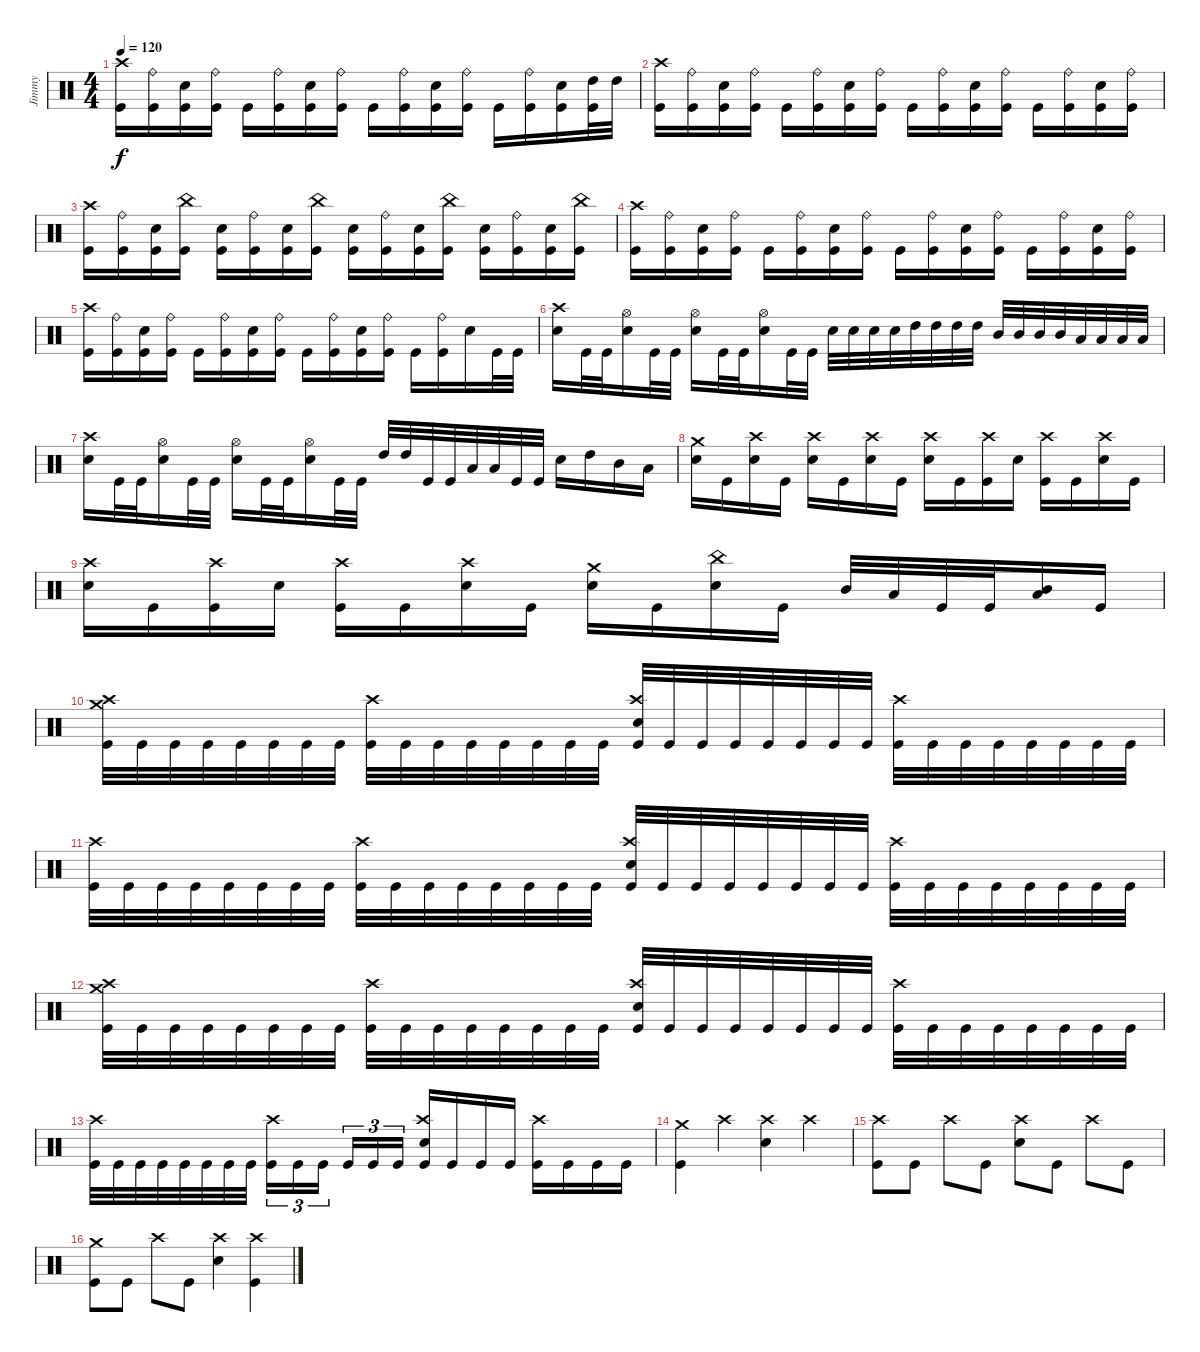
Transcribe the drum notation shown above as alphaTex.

\track ("Jimmy" "Jimmy") {instrument percussion}
\staff {score}
\articulation defaults
\ts (4 4)
\tempo 120
\clef neutral
\ks c
("Kick (hit)" "Crash high (hit)").16{dy f} ("Kick (hit)" "Ride (bell)").16 ("Kick (hit)" "Snare (hit) 2").16 ("Kick (hit)" "Ride (bell)").16 "Kick (hit)".16 ("Kick (hit)" "Ride (bell)").16 ("Kick (hit)" "Snare (hit) 2").16 ("Kick (hit)" "Ride (bell)").16 "Kick (hit)".16 ("Kick (hit)" "Ride (bell)").16 ("Kick (hit)" "Snare (hit) 2").16 ("Kick (hit)" "Ride (bell)").16 "Kick (hit)".16 ("Kick (hit)" "Ride (bell)").16 ("Kick (hit)" "Snare (hit) 2").16 ("Kick (hit)" "High Tom (hit)").32 "High Tom (hit)".32 |
("Kick (hit)" "Crash high (hit)").16 ("Kick (hit)" "Ride (bell)").16 ("Kick (hit)" "Snare (hit) 2").16 ("Kick (hit)" "Ride (bell)").16 "Kick (hit)".16 ("Kick (hit)" "Ride (bell)").16 ("Kick (hit)" "Snare (hit) 2").16 ("Kick (hit)" "Ride (bell)").16 "Kick (hit)".16 ("Kick (hit)" "Ride (bell)").16 ("Kick (hit)" "Snare (hit) 2").16 ("Kick (hit)" "Ride (bell)").16 "Kick (hit)".16 ("Kick (hit)" "Ride (bell)").16 ("Kick (hit)" "Snare (hit) 2").16 ("Kick (hit)" "Ride (bell)").16 |
("Kick (hit)" "Crash high (hit)").16 ("Kick (hit)" "Ride (bell)").16 ("Kick (hit)" "Snare (hit) 2").16 ("Kick (hit)" "China (hit)").16 ("Kick (hit)" "Snare (hit) 2").16 ("Kick (hit)" "Ride (bell)").16 ("Kick (hit)" "Snare (hit) 2").16 ("Kick (hit)" "China (hit)").16 ("Kick (hit)" "Snare (hit) 2").16 ("Kick (hit)" "Ride (bell)").16 ("Kick (hit)" "Snare (hit) 2").16 ("Kick (hit)" "China (hit)").16 ("Kick (hit)" "Snare (hit) 2").16 ("Kick (hit)" "Ride (bell)").16 ("Kick (hit)" "Snare (hit) 2").16 ("Kick (hit)" "China (hit)").16 |
("Kick (hit)" "Crash high (hit)").16 ("Kick (hit)" "Ride (bell)").16 ("Kick (hit)" "Snare (hit) 2").16 ("Kick (hit)" "Ride (bell)").16 "Kick (hit)".16 ("Kick (hit)" "Ride (bell)").16 ("Kick (hit)" "Snare (hit) 2").16 ("Kick (hit)" "Ride (bell)").16 "Kick (hit)".16 ("Kick (hit)" "Ride (bell)").16 ("Kick (hit)" "Snare (hit) 2").16 ("Kick (hit)" "Ride (bell)").16 "Kick (hit)".16 ("Kick (hit)" "Ride (bell)").16 ("Kick (hit)" "Snare (hit) 2").16 ("Kick (hit)" "Ride (bell)").16 |
("Kick (hit)" "Crash high (hit)").16 ("Kick (hit)" "Ride (bell)").16 ("Kick (hit)" "Snare (hit) 2").16 ("Kick (hit)" "Ride (bell)").16 "Kick (hit)".16 ("Kick (hit)" "Ride (bell)").16 ("Kick (hit)" "Snare (hit) 2").16 ("Kick (hit)" "Ride (bell)").16 "Kick (hit)".16 ("Kick (hit)" "Ride (bell)").16 ("Kick (hit)" "Snare (hit) 2").16 ("Kick (hit)" "Ride (bell)").16 "Kick (hit)".16 ("Kick (hit)" "Ride (bell)").16 "Snare (hit) 2".16 "Kick (hit)".32 "Kick (hit)".32 |
("Snare (hit) 2" "Crash high (hit)").16 "Kick (hit)".32 "Kick (hit)".32 ("Snare (hit) 2" "Hi-Hat (open)").16 "Kick (hit)".32 "Kick (hit)".32 ("Snare (hit) 2" "Hi-Hat (open)").16 "Kick (hit)".32 "Kick (hit)".32 ("Snare (hit) 2" "Hi-Hat (open)").16 "Kick (hit)".32 "Kick (hit)".32 "Snare (hit) 2".32 "Snare (hit) 2".32 "Snare (hit) 2".32 "Snare (hit) 2".32 "High Tom (hit)".32 "High Tom (hit)".32 "High Tom (hit)".32 "High Tom (hit)".32 "Mid Tom (hit)".32 "Mid Tom (hit)".32 "Mid Tom (hit)".32 "Mid Tom (hit)".32 "Low Tom (hit)".32 "Low Tom (hit)".32 "Low Tom (hit)".32 "Low Tom (hit)".32 |
("Snare (hit) 2" "Crash high (hit)").16 "Kick (hit)".32 "Kick (hit)".32 ("Snare (hit) 2" "Hi-Hat (open)").16 "Kick (hit)".32 "Kick (hit)".32 ("Snare (hit) 2" "Hi-Hat (open)").16 "Kick (hit)".32 "Kick (hit)".32 ("Snare (hit) 2" "Hi-Hat (open)").16 "Kick (hit)".32 "Kick (hit)".32 "High Tom (hit)".32 "High Tom (hit)".32 "Kick (hit)".32 "Kick (hit)".32 "Low Tom (hit)".32 "Low Tom (hit)".32 "Kick (hit)".32 "Kick (hit)".32 "Snare (hit) 2".16 "High Tom (hit)".16 "Mid Tom (hit)".16 "Low Tom (hit)".16 |
("Snare (hit) 2" "Crash medium (hit)").16 "Kick (hit)".16 ("Snare (hit) 2" "Crash high (hit)").16 "Kick (hit)".16 ("Snare (hit) 2" "Crash high (hit)").16 "Kick (hit)".16 ("Snare (hit) 2" "Crash high (hit)").16 "Kick (hit)".16 ("Snare (hit) 2" "Crash high (hit)").16 "Kick (hit)".16 ("Kick (hit)" "Crash high (hit)").16 "Snare (hit) 2".16 ("Kick (hit)" "Crash high (hit)").16 "Kick (hit)".16 ("Snare (hit) 2" "Crash high (hit)").16 "Kick (hit)".16 |
("Snare (hit) 2" "Crash high (hit)").16 "Kick (hit)".16 ("Kick (hit)" "Crash high (hit)").16 "Snare (hit) 2".16 ("Kick (hit)" "Crash high (hit)").16 "Kick (hit)".16 ("Snare (hit) 2" "Crash high (hit)").16 "Kick (hit)".16 ("Snare (hit) 2" "Crash medium (hit)").16 "Kick (hit)".16 ("Snare (hit) 2" "China (hit)").16 "Kick (hit)".16 "Mid Tom (hit)".32 "Low Tom (hit)".32 "Kick (hit)".32 "Kick (hit)".32 ("Mid Tom (hit)" "Low Tom (hit)").16 "Kick (hit)".16 |
("Kick (hit)" "Crash high (hit)" "Crash medium (hit)").32 "Kick (hit)".32 "Kick (hit)".32 "Kick (hit)".32 "Kick (hit)".32 "Kick (hit)".32 "Kick (hit)".32 "Kick (hit)".32 ("Kick (hit)" "Crash high (hit)").32 "Kick (hit)".32 "Kick (hit)".32 "Kick (hit)".32 "Kick (hit)".32 "Kick (hit)".32 "Kick (hit)".32 "Kick (hit)".32 ("Kick (hit)" "Crash high (hit)" "Snare (hit) 2").32 "Kick (hit)".32 "Kick (hit)".32 "Kick (hit)".32 "Kick (hit)".32 "Kick (hit)".32 "Kick (hit)".32 "Kick (hit)".32 ("Kick (hit)" "Crash high (hit)").32 "Kick (hit)".32 "Kick (hit)".32 "Kick (hit)".32 "Kick (hit)".32 "Kick (hit)".32 "Kick (hit)".32 "Kick (hit)".32 |
("Kick (hit)" "Crash high (hit)").32 "Kick (hit)".32 "Kick (hit)".32 "Kick (hit)".32 "Kick (hit)".32 "Kick (hit)".32 "Kick (hit)".32 "Kick (hit)".32 ("Kick (hit)" "Crash high (hit)").32 "Kick (hit)".32 "Kick (hit)".32 "Kick (hit)".32 "Kick (hit)".32 "Kick (hit)".32 "Kick (hit)".32 "Kick (hit)".32 ("Kick (hit)" "Crash high (hit)" "Snare (hit) 2").32 "Kick (hit)".32 "Kick (hit)".32 "Kick (hit)".32 "Kick (hit)".32 "Kick (hit)".32 "Kick (hit)".32 "Kick (hit)".32 ("Kick (hit)" "Crash high (hit)").32 "Kick (hit)".32 "Kick (hit)".32 "Kick (hit)".32 "Kick (hit)".32 "Kick (hit)".32 "Kick (hit)".32 "Kick (hit)".32 |
("Kick (hit)" "Crash high (hit)" "Crash medium (hit)").32 "Kick (hit)".32 "Kick (hit)".32 "Kick (hit)".32 "Kick (hit)".32 "Kick (hit)".32 "Kick (hit)".32 "Kick (hit)".32 ("Kick (hit)" "Crash high (hit)").32 "Kick (hit)".32 "Kick (hit)".32 "Kick (hit)".32 "Kick (hit)".32 "Kick (hit)".32 "Kick (hit)".32 "Kick (hit)".32 ("Kick (hit)" "Crash high (hit)" "Snare (hit) 2").32 "Kick (hit)".32 "Kick (hit)".32 "Kick (hit)".32 "Kick (hit)".32 "Kick (hit)".32 "Kick (hit)".32 "Kick (hit)".32 ("Kick (hit)" "Crash high (hit)").32 "Kick (hit)".32 "Kick (hit)".32 "Kick (hit)".32 "Kick (hit)".32 "Kick (hit)".32 "Kick (hit)".32 "Kick (hit)".32 |
("Kick (hit)" "Crash high (hit)").32 "Kick (hit)".32 "Kick (hit)".32 "Kick (hit)".32 "Kick (hit)".32 "Kick (hit)".32 "Kick (hit)".32 "Kick (hit)".32 ("Kick (hit)" "Crash high (hit)").16{tu (3 2)} "Kick (hit)".16{tu (3 2)} "Kick (hit)".16{tu (3 2) beam splitsecondary} "Kick (hit)".16{tu (3 2)} "Kick (hit)".16{tu (3 2)} "Kick (hit)".16{tu (3 2)} ("Kick (hit)" "Crash high (hit)" "Snare (hit) 2").16 "Kick (hit)".16 "Kick (hit)".16 "Kick (hit)".16 ("Kick (hit)" "Crash high (hit)").16 "Kick (hit)".16 "Kick (hit)".16 "Kick (hit)".16 |
("Kick (hit)" "Crash medium (hit)").4 "Crash high (hit)".4 ("Crash high (hit)" "Snare (hit) 2").4 "Crash high (hit)".4 |
("Kick (hit)" "Crash high (hit)").8 "Kick (hit)".8 "Crash high (hit)".8 "Kick (hit)".8 ("Snare (hit) 2" "Crash high (hit)").8 "Kick (hit)".8 "Crash high (hit)".8 "Kick (hit)".8 |
("Kick (hit)" "Crash medium (hit)").8 "Kick (hit)".8 "Crash high (hit)".8 "Kick (hit)".8 ("Snare (hit) 2" "Crash high (hit)").4 ("Crash high (hit)" "Kick (hit)").4
